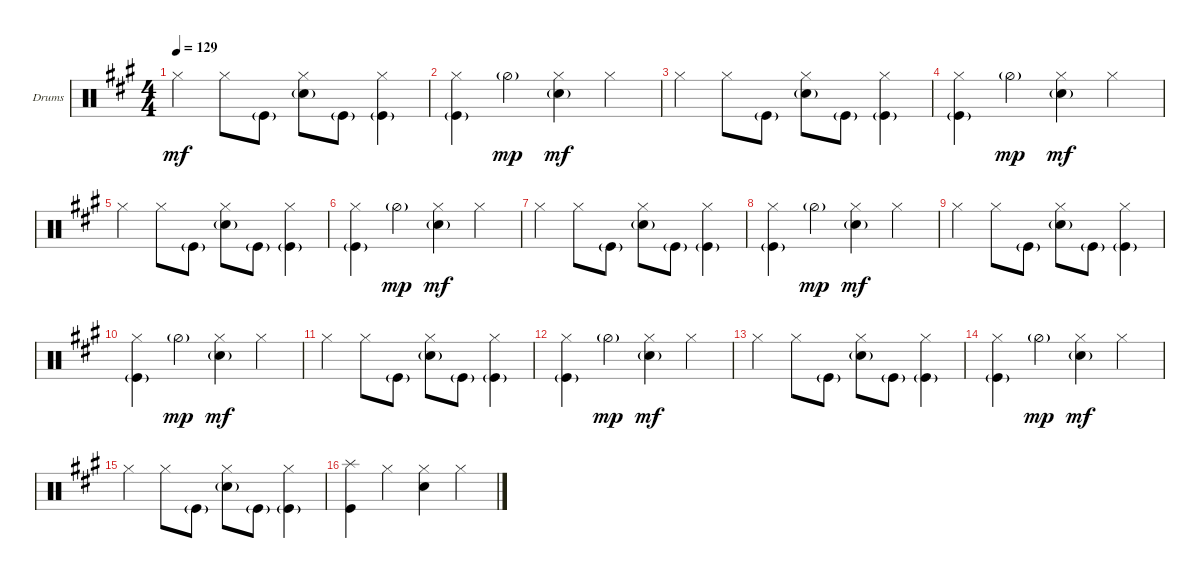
\defaultSystemsLayout 4
\bracketExtendMode groupsimilarinstruments
\firstSystemTrackNameOrientation horizontal
\otherSystemsTrackNameOrientation horizontal
\track ("Drumkit" "Drums") {instrument percussion}
\staff {score}
\articulation defaults
\ts (4 4)
\tempo 129
\clef neutral
\ks f#minor "Hi-Hat (closed)".4{dy mf} "Hi-Hat (closed)".8 "Kick (hit)"{g}.8
("Snare (hit) 2"{g} "Hi-Hat (closed)").8 "Kick (hit)"{g}.8 ("Hi-Hat (closed)" "Kick (hit)"{g}).4 |
("Kick (hit)"{g} "Hi-Hat (closed)").4 "Hi-Hat (half)"{g}.4{dy mp} ("Snare (hit) 2"{g} "Hi-Hat (closed)").4{dy mf} "Hi-Hat (closed)".4 |
"Hi-Hat (closed)".4 "Hi-Hat (closed)".8 "Kick (hit)"{g}.8 ("Snare (hit) 2"{g} "Hi-Hat (closed)").8 "Kick (hit)"{g}.8 ("Hi-Hat (closed)" "Kick (hit)"{g}).4 |
("Kick (hit)"{g} "Hi-Hat (closed)").4 "Hi-Hat (half)"{g}.4{dy mp} ("Snare (hit) 2"{g} "Hi-Hat (closed)").4{dy mf} "Hi-Hat (closed)".4 |
"Hi-Hat (closed)".4 "Hi-Hat (closed)".8 "Kick (hit)"{g}.8 ("Snare (hit) 2"{g} "Hi-Hat (closed)").8 "Kick (hit)"{g}.8 ("Hi-Hat (closed)" "Kick (hit)"{g}).4 |
("Kick (hit)"{g} "Hi-Hat (closed)").4 "Hi-Hat (half)"{g}.4{dy mp} ("Snare (hit) 2"{g} "Hi-Hat (closed)").4{dy mf} "Hi-Hat (closed)".4 |
"Hi-Hat (closed)".4 "Hi-Hat (closed)".8 "Kick (hit)"{g}.8 ("Snare (hit) 2"{g} "Hi-Hat (closed)").8 "Kick (hit)"{g}.8 ("Hi-Hat (closed)" "Kick (hit)"{g}).4 |
("Kick (hit)"{g} "Hi-Hat (closed)").4 "Hi-Hat (half)"{g}.4{dy mp} ("Snare (hit) 2"{g} "Hi-Hat (closed)").4{dy mf} "Hi-Hat (closed)".4 |
"Hi-Hat (closed)".4 "Hi-Hat (closed)".8 "Kick (hit)"{g}.8 ("Snare (hit) 2"{g} "Hi-Hat (closed)").8 "Kick (hit)"{g}.8 ("Hi-Hat (closed)" "Kick (hit)"{g}).4 |
("Kick (hit)"{g} "Hi-Hat (closed)").4 "Hi-Hat (half)"{g}.4{dy mp} ("Snare (hit) 2"{g} "Hi-Hat (closed)").4{dy mf} "Hi-Hat (closed)".4 |
"Hi-Hat (closed)".4 "Hi-Hat (closed)".8 "Kick (hit)"{g}.8 ("Snare (hit) 2"{g} "Hi-Hat (closed)").8 "Kick (hit)"{g}.8 ("Hi-Hat (closed)" "Kick (hit)"{g}).4 |
("Kick (hit)"{g} "Hi-Hat (closed)").4 "Hi-Hat (half)"{g}.4{dy mp} ("Snare (hit) 2"{g} "Hi-Hat (closed)").4{dy mf} "Hi-Hat (closed)".4 |
"Hi-Hat (closed)".4 "Hi-Hat (closed)".8 "Kick (hit)"{g}.8 ("Snare (hit) 2"{g} "Hi-Hat (closed)").8 "Kick (hit)"{g}.8 ("Hi-Hat (closed)" "Kick (hit)"{g}).4 |
("Kick (hit)"{g} "Hi-Hat (closed)").4 "Hi-Hat (half)"{g}.4{dy mp} ("Snare (hit) 2"{g} "Hi-Hat (closed)").4{dy mf} "Hi-Hat (closed)".4 |
"Hi-Hat (closed)".4 "Hi-Hat (closed)".8 "Kick (hit)"{g}.8 ("Snare (hit) 2"{g} "Hi-Hat (closed)").8 "Kick (hit)"{g}.8 ("Hi-Hat (closed)" "Kick (hit)"{g}).4 |
("Kick (hit)" "Splash (hit)").4 "Hi-Hat (closed)".4 ("Snare (hit) 2" "Hi-Hat (closed)").4 "Hi-Hat (closed)".4
